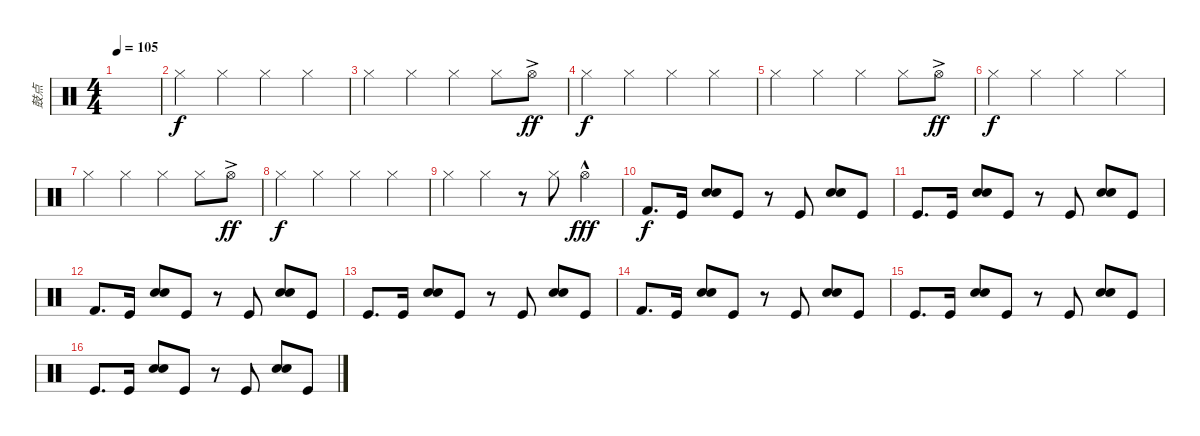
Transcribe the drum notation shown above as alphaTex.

\track ("鼓点" "鼓点") {instrument percussion}
\staff {score}
\articulation defaults
\ts (4 4)
\tempo 105
\clef neutral
\ks c
|
"Hi-Hat (closed)".4{dy f volume 6} "Hi-Hat (closed)".4 "Hi-Hat (closed)".4 "Hi-Hat (closed)".4 |
"Hi-Hat (closed)".4 "Hi-Hat (closed)".4 "Hi-Hat (closed)".4 "Hi-Hat (closed)".8 "Hi-Hat (open)"{ac}.8{dy ff} |
"Hi-Hat (closed)".4{dy f} "Hi-Hat (closed)".4 "Hi-Hat (closed)".4 "Hi-Hat (closed)".4 |
"Hi-Hat (closed)".4 "Hi-Hat (closed)".4 "Hi-Hat (closed)".4 "Hi-Hat (closed)".8 "Hi-Hat (open)"{ac}.8{dy ff} |
"Hi-Hat (closed)".4{dy f} "Hi-Hat (closed)".4 "Hi-Hat (closed)".4 "Hi-Hat (closed)".4 |
"Hi-Hat (closed)".4 "Hi-Hat (closed)".4 "Hi-Hat (closed)".4 "Hi-Hat (closed)".8 "Hi-Hat (open)"{ac}.8{dy ff} |
"Hi-Hat (closed)".4{dy f} "Hi-Hat (closed)".4 "Hi-Hat (closed)".4 "Hi-Hat (closed)".4 |
"Hi-Hat (closed)".4 "Hi-Hat (closed)".4 r.8 "Hi-Hat (closed)".8 "Hi-Hat (open)"{hac}.4{dy fff} |
"Kick (hit) 2".8{d dy f volume 8} "Kick (hit)".16 ("Electric Snare (hit)" "Snare (hit) 2").8 "Kick (hit)".8 r.8 "Kick (hit)".8 ("Electric Snare (hit)" "Snare (hit) 2").8 "Kick (hit)".8 |
"Kick (hit)".8{d} "Kick (hit)".16 ("Electric Snare (hit)" "Snare (hit) 2").8 "Kick (hit)".8 r.8 "Kick (hit)".8 ("Electric Snare (hit)" "Snare (hit) 2").8 "Kick (hit)".8 |
"Kick (hit) 2".8{d} "Kick (hit)".16 ("Electric Snare (hit)" "Snare (hit) 2").8 "Kick (hit)".8 r.8 "Kick (hit)".8 ("Electric Snare (hit)" "Snare (hit) 2").8 "Kick (hit)".8 |
"Kick (hit)".8{d} "Kick (hit)".16 ("Electric Snare (hit)" "Snare (hit) 2").8 "Kick (hit)".8 r.8 "Kick (hit)".8 ("Electric Snare (hit)" "Snare (hit) 2").8 "Kick (hit)".8 |
"Kick (hit) 2".8{d} "Kick (hit)".16 ("Electric Snare (hit)" "Snare (hit) 2").8 "Kick (hit)".8 r.8 "Kick (hit)".8 ("Electric Snare (hit)" "Snare (hit) 2").8 "Kick (hit)".8 |
"Kick (hit)".8{d} "Kick (hit)".16 ("Electric Snare (hit)" "Snare (hit) 2").8 "Kick (hit)".8 r.8 "Kick (hit)".8 ("Electric Snare (hit)" "Snare (hit) 2").8 "Kick (hit)".8 |
"Kick (hit)".8{d} "Kick (hit)".16 ("Electric Snare (hit)" "Snare (hit) 2").8 "Kick (hit)".8 r.8 "Kick (hit)".8 ("Electric Snare (hit)" "Snare (hit) 2").8 "Kick (hit)".8
